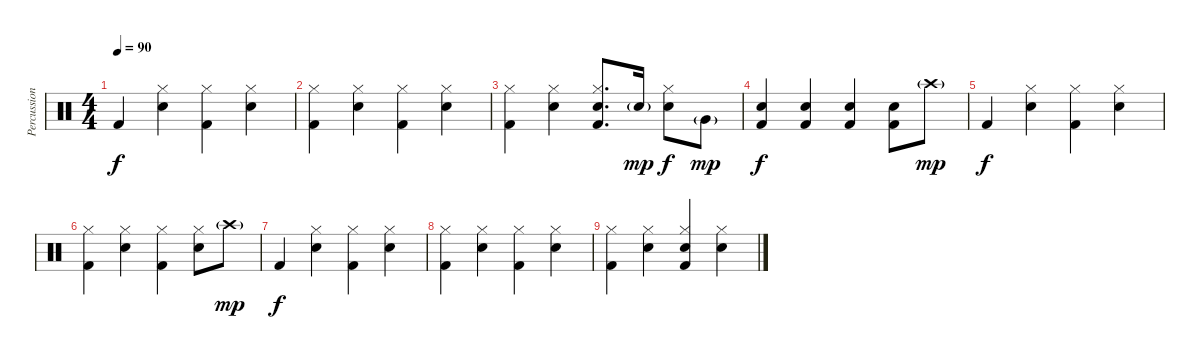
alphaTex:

\track ("Percussion" "Percussion") {instrument percussion}
\staff {score}
\articulation defaults
\ts (4 4)
\tempo 90
\clef neutral
\ks c "Kick (hit) 2".4{dy f}
("Hi-Hat (closed)" "Snare (hit) 2").4 ("Hi-Hat (closed)" "Kick (hit) 2").4 ("Hi-Hat (closed)" "Snare (hit) 2").4 |
("Hi-Hat (closed)" "Kick (hit) 2").4 ("Hi-Hat (closed)" "Snare (hit) 2").4 ("Hi-Hat (closed)" "Kick (hit) 2").4 ("Hi-Hat (closed)" "Snare (hit) 2").4 |
("Hi-Hat (closed)" "Kick (hit) 2").4 ("Hi-Hat (closed)" "Snare (hit) 2").4 ("Hi-Hat (closed)" "Snare (hit) 2" "Kick (hit) 2").8{d} "Snare (hit) 2"{g}.16{dy mp} ("Hi-Hat (closed)" "Snare (hit) 2").8{dy f} "Very Low Tom (hit)"{g}.8{dy mp} |
("Snare (hit) 2" "Kick (hit) 2").4{dy f} ("Snare (hit) 2" "Kick (hit) 2").4 ("Snare (hit) 2" "Kick (hit) 2").4 ("Snare (hit) 2" "Kick (hit) 2").8 "Crash high (hit)"{g}.8{dy mp} |
"Kick (hit) 2".4{dy f} ("Hi-Hat (closed)" "Snare (hit) 2").4 ("Hi-Hat (closed)" "Kick (hit) 2").4 ("Hi-Hat (closed)" "Snare (hit) 2").4 |
("Hi-Hat (closed)" "Kick (hit) 2").4 ("Hi-Hat (closed)" "Snare (hit) 2").4 ("Hi-Hat (closed)" "Kick (hit) 2").4 ("Hi-Hat (closed)" "Snare (hit) 2").8 "Crash high (hit)"{g}.8{dy mp} |
"Kick (hit) 2".4{dy f} ("Hi-Hat (closed)" "Snare (hit) 2").4 ("Hi-Hat (closed)" "Kick (hit) 2").4 ("Hi-Hat (closed)" "Snare (hit) 2").4 |
("Hi-Hat (closed)" "Kick (hit) 2").4 ("Hi-Hat (closed)" "Snare (hit) 2").4 ("Hi-Hat (closed)" "Kick (hit) 2").4 ("Hi-Hat (closed)" "Snare (hit) 2").4 |
("Hi-Hat (closed)" "Kick (hit) 2").4 ("Hi-Hat (closed)" "Snare (hit) 2").4 ("Hi-Hat (closed)" "Snare (hit) 2" "Kick (hit) 2").4 ("Hi-Hat (closed)" "Snare (hit) 2").4
